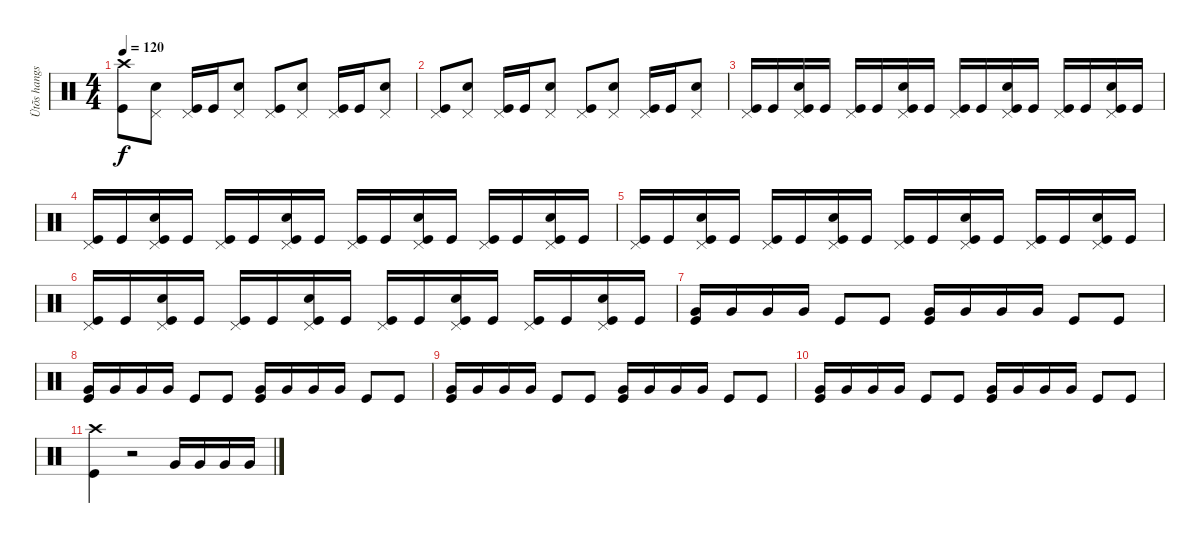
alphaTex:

\track ("Ütõs hangszer" "Ütõs hangs") {instrument percussion}
\staff {score}
\articulation defaults
\ts (4 4)
\tempo 120
\clef neutral
\ks c
("Crash high (hit)" "Kick (hit)").8{dy f} ("Pedal Hi-Hat (hit)" "Electric Snare (hit)").8 ("Pedal Hi-Hat (hit)" "Kick (hit)").16 "Kick (hit)".16 ("Pedal Hi-Hat (hit)" "Electric Snare (hit)").8 ("Pedal Hi-Hat (hit)" "Kick (hit)").8 ("Pedal Hi-Hat (hit)" "Electric Snare (hit)").8 ("Pedal Hi-Hat (hit)" "Kick (hit)").16 "Kick (hit)".16 ("Pedal Hi-Hat (hit)" "Electric Snare (hit)").8 |
("Pedal Hi-Hat (hit)" "Kick (hit)").8 ("Pedal Hi-Hat (hit)" "Electric Snare (hit)").8 ("Pedal Hi-Hat (hit)" "Kick (hit)").16 "Kick (hit)".16 ("Pedal Hi-Hat (hit)" "Electric Snare (hit)").8 ("Pedal Hi-Hat (hit)" "Kick (hit)").8 ("Pedal Hi-Hat (hit)" "Electric Snare (hit)").8 ("Pedal Hi-Hat (hit)" "Kick (hit)").16 "Kick (hit)".16 ("Pedal Hi-Hat (hit)" "Electric Snare (hit)").8 |
("Pedal Hi-Hat (hit)" "Kick (hit)").16 "Kick (hit)".16 ("Pedal Hi-Hat (hit)" "Electric Snare (hit)" "Kick (hit)").16 "Kick (hit)".16 ("Pedal Hi-Hat (hit)" "Kick (hit)").16 "Kick (hit)".16 ("Pedal Hi-Hat (hit)" "Electric Snare (hit)" "Kick (hit)").16 "Kick (hit)".16 ("Pedal Hi-Hat (hit)" "Kick (hit)").16 "Kick (hit)".16 ("Pedal Hi-Hat (hit)" "Electric Snare (hit)" "Kick (hit)").16 "Kick (hit)".16 ("Pedal Hi-Hat (hit)" "Kick (hit)").16 "Kick (hit)".16 ("Pedal Hi-Hat (hit)" "Electric Snare (hit)" "Kick (hit)").16 "Kick (hit)".16 |
("Pedal Hi-Hat (hit)" "Kick (hit)").16 "Kick (hit)".16 ("Pedal Hi-Hat (hit)" "Electric Snare (hit)" "Kick (hit)").16 "Kick (hit)".16 ("Pedal Hi-Hat (hit)" "Kick (hit)").16 "Kick (hit)".16 ("Pedal Hi-Hat (hit)" "Electric Snare (hit)" "Kick (hit)").16 "Kick (hit)".16 ("Pedal Hi-Hat (hit)" "Kick (hit)").16 "Kick (hit)".16 ("Pedal Hi-Hat (hit)" "Electric Snare (hit)" "Kick (hit)").16 "Kick (hit)".16 ("Pedal Hi-Hat (hit)" "Kick (hit)").16 "Kick (hit)".16 ("Pedal Hi-Hat (hit)" "Electric Snare (hit)" "Kick (hit)").16 "Kick (hit)".16 |
("Pedal Hi-Hat (hit)" "Kick (hit)").16 "Kick (hit)".16 ("Pedal Hi-Hat (hit)" "Electric Snare (hit)" "Kick (hit)").16 "Kick (hit)".16 ("Pedal Hi-Hat (hit)" "Kick (hit)").16 "Kick (hit)".16 ("Pedal Hi-Hat (hit)" "Electric Snare (hit)" "Kick (hit)").16 "Kick (hit)".16 ("Pedal Hi-Hat (hit)" "Kick (hit)").16 "Kick (hit)".16 ("Pedal Hi-Hat (hit)" "Electric Snare (hit)" "Kick (hit)").16 "Kick (hit)".16 ("Pedal Hi-Hat (hit)" "Kick (hit)").16 "Kick (hit)".16 ("Pedal Hi-Hat (hit)" "Electric Snare (hit)" "Kick (hit)").16 "Kick (hit)".16 |
("Pedal Hi-Hat (hit)" "Kick (hit)").16 "Kick (hit)".16 ("Pedal Hi-Hat (hit)" "Electric Snare (hit)" "Kick (hit)").16 "Kick (hit)".16 ("Pedal Hi-Hat (hit)" "Kick (hit)").16 "Kick (hit)".16 ("Pedal Hi-Hat (hit)" "Electric Snare (hit)" "Kick (hit)").16 "Kick (hit)".16 ("Pedal Hi-Hat (hit)" "Kick (hit)").16 "Kick (hit)".16 ("Pedal Hi-Hat (hit)" "Electric Snare (hit)" "Kick (hit)").16 "Kick (hit)".16 ("Pedal Hi-Hat (hit)" "Kick (hit)").16 "Kick (hit)".16 ("Pedal Hi-Hat (hit)" "Electric Snare (hit)" "Kick (hit)").16 "Kick (hit)".16 |
("Very Low Tom (hit)" "Kick (hit)").16 "Very Low Tom (hit)".16 "Very Low Tom (hit)".16 "Very Low Tom (hit)".16 "Kick (hit)".8 "Kick (hit)".8 ("Very Low Tom (hit)" "Kick (hit)").16 "Very Low Tom (hit)".16 "Very Low Tom (hit)".16 "Very Low Tom (hit)".16 "Kick (hit)".8 "Kick (hit)".8 |
("Very Low Tom (hit)" "Kick (hit)").16 "Very Low Tom (hit)".16 "Very Low Tom (hit)".16 "Very Low Tom (hit)".16 "Kick (hit)".8 "Kick (hit)".8 ("Very Low Tom (hit)" "Kick (hit)").16 "Very Low Tom (hit)".16 "Very Low Tom (hit)".16 "Very Low Tom (hit)".16 "Kick (hit)".8 "Kick (hit)".8 |
("Very Low Tom (hit)" "Kick (hit)").16 "Very Low Tom (hit)".16 "Very Low Tom (hit)".16 "Very Low Tom (hit)".16 "Kick (hit)".8 "Kick (hit)".8 ("Very Low Tom (hit)" "Kick (hit)").16 "Very Low Tom (hit)".16 "Very Low Tom (hit)".16 "Very Low Tom (hit)".16 "Kick (hit)".8 "Kick (hit)".8 |
("Very Low Tom (hit)" "Kick (hit)").16 "Very Low Tom (hit)".16 "Very Low Tom (hit)".16 "Very Low Tom (hit)".16 "Kick (hit)".8 "Kick (hit)".8 ("Very Low Tom (hit)" "Kick (hit)").16 "Very Low Tom (hit)".16 "Very Low Tom (hit)".16 "Very Low Tom (hit)".16 "Kick (hit)".8 "Kick (hit)".8 |
("Crash high (hit)" "Kick (hit)").4 r.2 "Very Low Tom (hit)".16 "Very Low Tom (hit)".16 "Very Low Tom (hit)".16 "Very Low Tom (hit)".16
